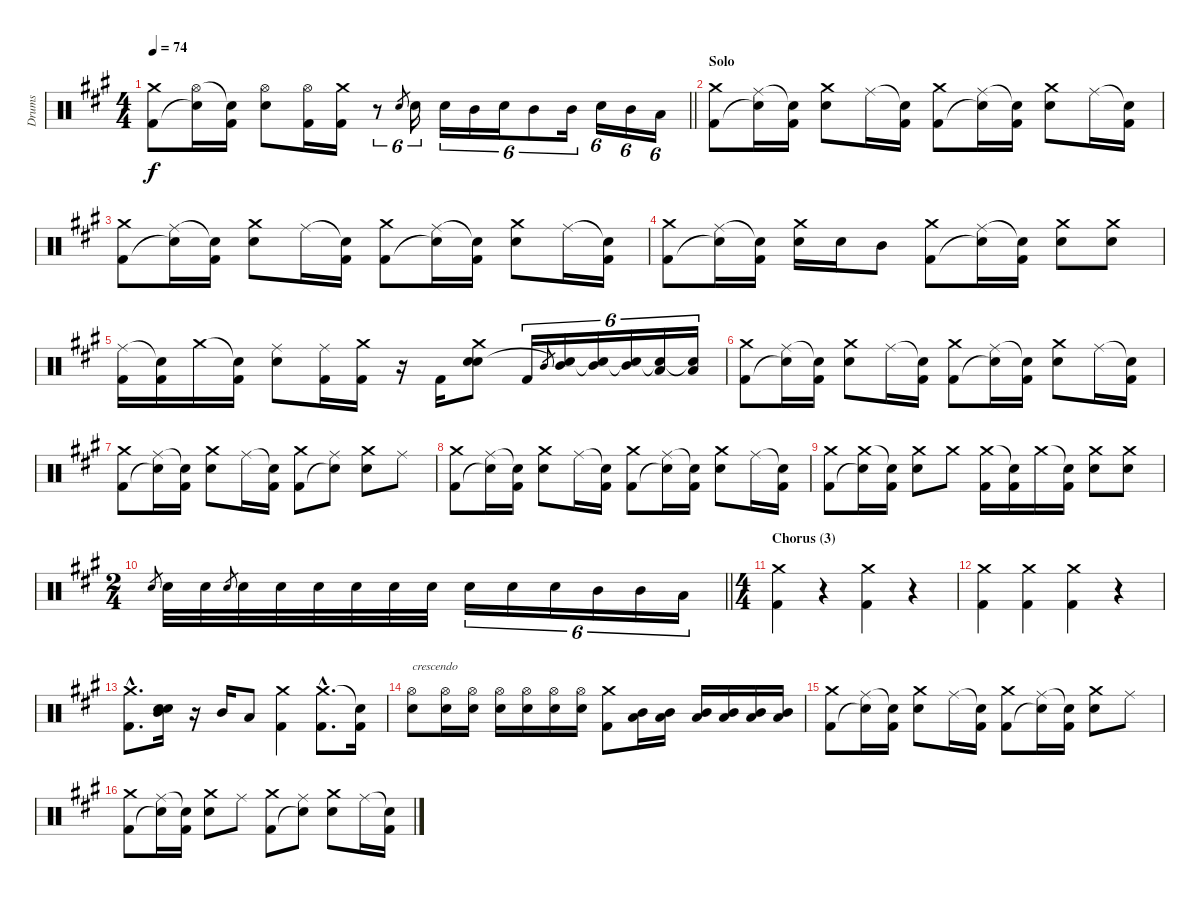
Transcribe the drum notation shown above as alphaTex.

\track ("Drums" "Drums") {instrument percussion}
\staff {score}
\articulation defaults
\ts (4 4)
\tempo 74
\clef neutral
\barLineRight lightlight
\ks f#minor
("Crash medium (hit)" "Kick (hit) 2").8{dy f} ("Hi-Hat (open)" "Snare (hit)"{t}).16 ("Snare (hit)"{t} "Kick (hit) 2").16 ("Hi-Hat (open)" "Electric Snare (hit)").8 ("Hi-Hat (open)" "Kick (hit) 2").16 ("Crash medium (hit)" "Kick (hit) 2").16 r.8{tu (6 4)} "Electric Snare (hit)".8{gr} "Electric Snare (hit)".16{tu (6 4)} "Electric Snare (hit)".16{tu (6 4)} "Mid Tom (hit)".16{tu (6 4)} "Electric Snare (hit)".16{tu (6 4)} "Mid Tom (hit)".8{tu (6 4)} "Mid Tom (hit)".16{tu (6 4)} "Electric Snare (hit)".16{tu (6 4)} "Mid Tom (hit)".16{tu (6 4)} "Low Floor Tom (hit)".16{tu (6 4)} |
\section ("" "Solo")
("Crash medium (hit)" "Kick (hit) 2").8 ("Ride (middle)" "Snare (hit)"{t}).16 ("Snare (hit)"{t} "Kick (hit) 2").16 ("Crash medium (hit)" "Electric Snare (hit)").8 "Ride (middle)".16 ("Snare (hit)"{t} "Kick (hit) 2").16 ("Crash medium (hit)" "Kick (hit) 2").8 ("Ride (middle)" "Snare (hit)"{t}).16 ("Snare (hit)"{t} "Kick (hit) 2").16 ("Crash medium (hit)" "Electric Snare (hit)").8 "Ride (middle)".16 ("Snare (hit)"{t} "Kick (hit) 2").16 |
("Crash medium (hit)" "Kick (hit) 2").8 ("Ride (middle)" "Snare (hit)"{t}).16 ("Snare (hit)"{t} "Kick (hit) 2").16 ("Crash medium (hit)" "Electric Snare (hit)").8 "Ride (middle)".16 ("Snare (hit)"{t} "Kick (hit) 2").16 ("Crash medium (hit)" "Kick (hit) 2").8 ("Ride (middle)" "Snare (hit)"{t}).16 ("Snare (hit)"{t} "Kick (hit) 2").16 ("Crash medium (hit)" "Electric Snare (hit)").8 "Ride (middle)".16 ("Snare (hit)"{t} "Kick (hit) 2").16 |
("Crash medium (hit)" "Kick (hit) 2").8 ("Ride (middle)" "Snare (hit)"{t}).16 ("Snare (hit)"{t} "Kick (hit) 2").16 ("Crash medium (hit)" "Electric Snare (hit)").16 "Electric Snare (hit)".16 "Mid Tom (hit)".8 ("Crash medium (hit)" "Kick (hit) 2").8 ("Ride (middle)" "Snare (hit)"{t}).16 ("Snare (hit)"{t} "Kick (hit) 2").16 ("Crash medium (hit)" "Electric Snare (hit)").8 ("Crash medium (hit)" "Electric Snare (hit)").8 |
("Ride (middle)" "Kick (hit) 2").16 ("Snare (hit)"{t} "Kick (hit) 2").16 "Crash medium (hit)".16 ("Snare (hit)"{t} "Kick (hit) 2").16 ("Ride (middle)" "Electric Snare (hit)").8 ("Ride (middle)" "Kick (hit) 2").16 ("Crash medium (hit)" "Kick (hit) 2").16 r.16 "Kick (hit) 2".16 ("Crash medium (hit)" "Electric Snare (hit)" "Snare (hit)").8 "Kick (hit) 2".16{tu (6 4)} "Mid Tom (hit)".8{gr} ("Mid Tom (hit)" "Snare (hit)"{t}).16{tu (6 4)} ("Mid Tom (hit)" "Snare (hit)"{t}).16{tu (6 4)} ("Mid Tom (hit)" "Snare (hit)"{t}).16{tu (6 4)} ("Low Floor Tom (hit)" "Snare (hit)"{t}).16{tu (6 4)} ("Low Floor Tom (hit)" "Snare (hit)"{t}).16{tu (6 4)} |
("Crash medium (hit)" "Kick (hit) 2").8 ("Ride (middle)" "Snare (hit)"{t}).16 ("Snare (hit)"{t} "Kick (hit) 2").16 ("Crash medium (hit)" "Electric Snare (hit)").8 "Ride (middle)".16 ("Snare (hit)"{t} "Kick (hit) 2").16 ("Crash medium (hit)" "Kick (hit) 2").8 ("Ride (middle)" "Snare (hit)"{t}).16 ("Snare (hit)"{t} "Kick (hit) 2").16 ("Crash medium (hit)" "Electric Snare (hit)").8 "Ride (middle)".16 ("Snare (hit)"{t} "Kick (hit) 2").16 |
("Crash medium (hit)" "Kick (hit) 2").8 ("Ride (middle)" "Snare (hit)"{t}).16 ("Snare (hit)"{t} "Kick (hit) 2").16 ("Crash medium (hit)" "Electric Snare (hit)").8 "Ride (middle)".16 ("Snare (hit)"{t} "Kick (hit) 2").16 ("Crash medium (hit)" "Kick (hit) 2").8 ("Ride (middle)" "Snare (hit)"{t}).8 ("Crash medium (hit)" "Electric Snare (hit)").8 "Ride (middle)".8 |
("Crash medium (hit)" "Kick (hit) 2").8 ("Ride (middle)" "Snare (hit)"{t}).16 ("Snare (hit)"{t} "Kick (hit) 2").16 ("Crash medium (hit)" "Electric Snare (hit)").8 "Ride (middle)".16 ("Snare (hit)"{t} "Kick (hit) 2").16 ("Crash medium (hit)" "Kick (hit) 2").8 ("Ride (middle)" "Snare (hit)"{t}).16 ("Snare (hit)"{t} "Kick (hit) 2").16 ("Crash medium (hit)" "Electric Snare (hit)").8 "Ride (middle)".16 ("Snare (hit)"{t} "Kick (hit) 2").16 |
("Crash medium (hit)" "Kick (hit) 2").8 ("Crash medium (hit)" "Snare (hit)"{t}).16 ("Snare (hit)"{t} "Kick (hit) 2").16 ("Crash medium (hit)" "Electric Snare (hit)").8 "Crash medium (hit)".8 ("Crash medium (hit)" "Kick (hit) 2").16 ("Snare (hit)"{t} "Kick (hit) 2").16 "Crash medium (hit)".16 ("Snare (hit)"{t} "Kick (hit) 2").16 ("Crash medium (hit)" "Electric Snare (hit)").8 ("Crash medium (hit)" "Electric Snare (hit)").8 |
\ts (2 4)
\barLineRight lightlight "Electric Snare (hit)".8{gr} "Electric Snare (hit)".32 "Electric Snare (hit)".32 "Electric Snare (hit)".8{gr} "Electric Snare (hit)".32 "Electric Snare (hit)".32 "Electric Snare (hit)".32 "Electric Snare (hit)".32 "Electric Snare (hit)".32 "Electric Snare (hit)".32 "Electric Snare (hit)".16{tu (6 4)} "Electric Snare (hit)".16{tu (6 4)} "Electric Snare (hit)".16{tu (6 4)} "Mid Tom (hit)".16{tu (6 4)} "Mid Tom (hit)".16{tu (6 4)} "Low Floor Tom (hit)".16{tu (6 4)}
|
\ts (4 4)
\section ("" "Chorus (3)")
\ks a
("Crash medium (hit)" "Kick (hit) 2").4 r.4 ("Crash medium (hit)" "Kick (hit) 2").4 r.4 |
("Crash medium (hit)" "Kick (hit) 2").4 ("Crash medium (hit)" "Kick (hit) 2").4 ("Crash medium (hit)" "Kick (hit) 2").4 r.4 |
("Crash medium (hit)"{hac} "Kick (hit) 2"{hac}).8{d} ("Electric Snare (hit)" "Mid Tom (hit)" "Snare (hit)").16 r.16 "Mid Tom (hit)".16 "Low Floor Tom (hit)".8 ("Crash medium (hit)" "Kick (hit) 2").4 ("Crash medium (hit)"{hac} "Kick (hit) 2"{hac}).8{d} ("Snare (hit)"{t} "Kick (hit) 2").16 |
("Hi-Hat (open)" "Electric Snare (hit)").8{txt "crescendo"} ("Hi-Hat (open)" "Electric Snare (hit)").16 ("Hi-Hat (open)" "Electric Snare (hit)").16 ("Hi-Hat (open)" "Electric Snare (hit)").16 ("Hi-Hat (open)" "Electric Snare (hit)").16 ("Hi-Hat (open)" "Electric Snare (hit)").16 ("Hi-Hat (open)" "Electric Snare (hit)").16 ("Crash medium (hit)" "Kick (hit) 2").8 ("Mid Tom (hit)" "Low Floor Tom (hit)").16 ("Mid Tom (hit)" "Low Floor Tom (hit)").16 ("Mid Tom (hit)" "Low Floor Tom (hit)").16 ("Mid Tom (hit)" "Low Floor Tom (hit)").16 ("Mid Tom (hit)" "Low Floor Tom (hit)").16 ("Mid Tom (hit)" "Low Floor Tom (hit)").16 |
("Crash medium (hit)" "Kick (hit) 2").8 ("Ride (middle)" "Snare (hit)"{t}).16 ("Snare (hit)"{t} "Kick (hit) 2").16 ("Crash medium (hit)" "Electric Snare (hit)").8 "Ride (middle)".16 ("Snare (hit)"{t} "Kick (hit) 2").16 ("Crash medium (hit)" "Kick (hit) 2").8 ("Ride (middle)" "Snare (hit)"{t}).16 ("Snare (hit)"{t} "Kick (hit) 2").16 ("Crash medium (hit)" "Electric Snare (hit)").8 "Ride (middle)".8 |
("Crash medium (hit)" "Kick (hit) 2").8 ("Ride (middle)" "Snare (hit)"{t}).16 ("Snare (hit)"{t} "Kick (hit) 2").16 ("Crash medium (hit)" "Electric Snare (hit)").8 "Ride (middle)".8 ("Crash medium (hit)" "Kick (hit) 2").8 ("Ride (middle)" "Snare (hit)"{t}).8 ("Crash medium (hit)" "Electric Snare (hit)").8 "Ride (middle)".16 ("Snare (hit)"{t} "Kick (hit) 2").16
